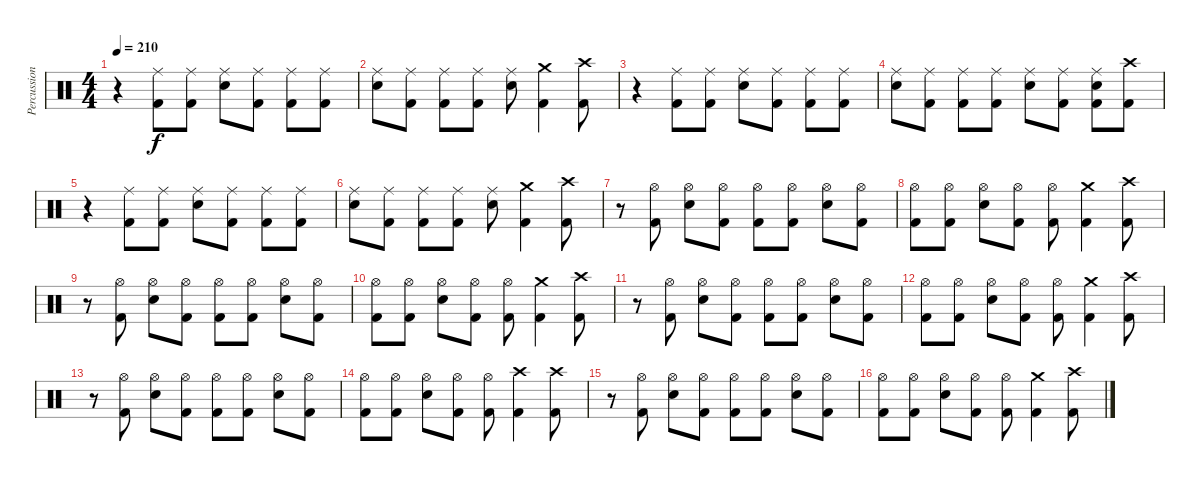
\track ("Percussion" "Percussion") {instrument percussion}
\staff {score}
\articulation defaults
\ts (4 4)
\tempo 210
\clef neutral
\ks c
r.4{dy f} ("Ride (middle)" "Kick (hit) 2").8 ("Ride (middle)" "Kick (hit) 2").8 ("Ride (middle)" "Electric Snare (hit)").8 ("Ride (middle)" "Kick (hit) 2").8 ("Ride (middle)" "Kick (hit) 2").8 ("Ride (middle)" "Kick (hit) 2").8 |
("Ride (middle)" "Electric Snare (hit)").8 ("Ride (middle)" "Kick (hit) 2").8 ("Ride (middle)" "Kick (hit) 2").8 ("Ride (middle)" "Kick (hit) 2").8 ("Ride (middle)" "Electric Snare (hit)").8 ("Crash medium (hit)" "Kick (hit) 2").4 ("Crash high (hit)" "Kick (hit) 2").8 |
r.4 ("Ride (middle)" "Kick (hit) 2").8 ("Ride (middle)" "Kick (hit) 2").8 ("Ride (middle)" "Electric Snare (hit)").8 ("Ride (middle)" "Kick (hit) 2").8 ("Ride (middle)" "Kick (hit) 2").8 ("Ride (middle)" "Kick (hit) 2").8 |
("Ride (middle)" "Electric Snare (hit)").8 ("Ride (middle)" "Kick (hit) 2").8 ("Ride (middle)" "Kick (hit) 2").8 ("Ride (middle)" "Kick (hit) 2").8 ("Ride (middle)" "Electric Snare (hit)").8 ("Ride (middle)" "Kick (hit) 2").8 ("Ride (middle)" "Electric Snare (hit)" "Kick (hit) 2").8 ("Crash high (hit)" "Kick (hit) 2").8 |
r.4 ("Ride (middle)" "Kick (hit) 2").8 ("Ride (middle)" "Kick (hit) 2").8 ("Ride (middle)" "Electric Snare (hit)").8 ("Ride (middle)" "Kick (hit) 2").8 ("Ride (middle)" "Kick (hit) 2").8 ("Ride (middle)" "Kick (hit) 2").8 |
("Ride (middle)" "Electric Snare (hit)").8 ("Ride (middle)" "Kick (hit) 2").8 ("Ride (middle)" "Kick (hit) 2").8 ("Ride (middle)" "Kick (hit) 2").8 ("Ride (middle)" "Electric Snare (hit)").8 ("Crash medium (hit)" "Kick (hit) 2").4 ("Crash high (hit)" "Kick (hit) 2").8 |
r.8 ("Hi-Hat (open)" "Kick (hit) 2").8 ("Hi-Hat (open)" "Electric Snare (hit)").8 ("Hi-Hat (open)" "Kick (hit) 2").8 ("Hi-Hat (open)" "Kick (hit) 2").8 ("Hi-Hat (open)" "Kick (hit) 2").8 ("Hi-Hat (open)" "Electric Snare (hit)").8 ("Hi-Hat (open)" "Kick (hit) 2").8 |
("Hi-Hat (open)" "Kick (hit) 2").8 ("Hi-Hat (open)" "Kick (hit) 2").8 ("Hi-Hat (open)" "Electric Snare (hit)").8 ("Hi-Hat (open)" "Kick (hit) 2").8 ("Hi-Hat (open)" "Kick (hit) 2").8 ("Crash medium (hit)" "Kick (hit) 2").4 ("Crash high (hit)" "Kick (hit) 2").8 |
r.8 ("Hi-Hat (open)" "Kick (hit) 2").8 ("Hi-Hat (open)" "Electric Snare (hit)").8 ("Hi-Hat (open)" "Kick (hit) 2").8 ("Hi-Hat (open)" "Kick (hit) 2").8 ("Hi-Hat (open)" "Kick (hit) 2").8 ("Hi-Hat (open)" "Electric Snare (hit)").8 ("Hi-Hat (open)" "Kick (hit) 2").8 |
("Hi-Hat (open)" "Kick (hit) 2").8 ("Hi-Hat (open)" "Kick (hit) 2").8 ("Hi-Hat (open)" "Electric Snare (hit)").8 ("Hi-Hat (open)" "Kick (hit) 2").8 ("Hi-Hat (open)" "Kick (hit) 2").8 ("Crash medium (hit)" "Kick (hit) 2").4 ("Crash high (hit)" "Kick (hit) 2").8 |
r.8 ("Hi-Hat (open)" "Kick (hit) 2").8 ("Hi-Hat (open)" "Electric Snare (hit)").8 ("Hi-Hat (open)" "Kick (hit) 2").8 ("Hi-Hat (open)" "Kick (hit) 2").8 ("Hi-Hat (open)" "Kick (hit) 2").8 ("Hi-Hat (open)" "Electric Snare (hit)").8 ("Hi-Hat (open)" "Kick (hit) 2").8 |
("Hi-Hat (open)" "Kick (hit) 2").8 ("Hi-Hat (open)" "Kick (hit) 2").8 ("Hi-Hat (open)" "Electric Snare (hit)").8 ("Hi-Hat (open)" "Kick (hit) 2").8 ("Hi-Hat (open)" "Kick (hit) 2").8 ("Crash medium (hit)" "Kick (hit) 2").4 ("Crash high (hit)" "Kick (hit) 2").8 |
r.8 ("Hi-Hat (open)" "Kick (hit) 2").8 ("Hi-Hat (open)" "Electric Snare (hit)").8 ("Hi-Hat (open)" "Kick (hit) 2").8 ("Hi-Hat (open)" "Kick (hit) 2").8 ("Hi-Hat (open)" "Kick (hit) 2").8 ("Hi-Hat (open)" "Electric Snare (hit)").8 ("Hi-Hat (open)" "Kick (hit) 2").8 |
("Hi-Hat (open)" "Kick (hit) 2").8 ("Hi-Hat (open)" "Kick (hit) 2").8 ("Hi-Hat (open)" "Electric Snare (hit)").8 ("Hi-Hat (open)" "Kick (hit) 2").8 ("Hi-Hat (open)" "Kick (hit) 2").8 ("Crash high (hit)" "Kick (hit) 2").4 ("Crash high (hit)" "Kick (hit) 2").8 |
r.8 ("Hi-Hat (open)" "Kick (hit) 2").8 ("Hi-Hat (open)" "Electric Snare (hit)").8 ("Hi-Hat (open)" "Kick (hit) 2").8 ("Hi-Hat (open)" "Kick (hit) 2").8 ("Hi-Hat (open)" "Kick (hit) 2").8 ("Hi-Hat (open)" "Electric Snare (hit)").8 ("Hi-Hat (open)" "Kick (hit) 2").8 |
("Hi-Hat (open)" "Kick (hit) 2").8 ("Hi-Hat (open)" "Kick (hit) 2").8 ("Hi-Hat (open)" "Electric Snare (hit)").8 ("Hi-Hat (open)" "Kick (hit) 2").8 ("Hi-Hat (open)" "Kick (hit) 2").8 ("Crash medium (hit)" "Kick (hit) 2").4 ("Crash high (hit)" "Kick (hit) 2").8
